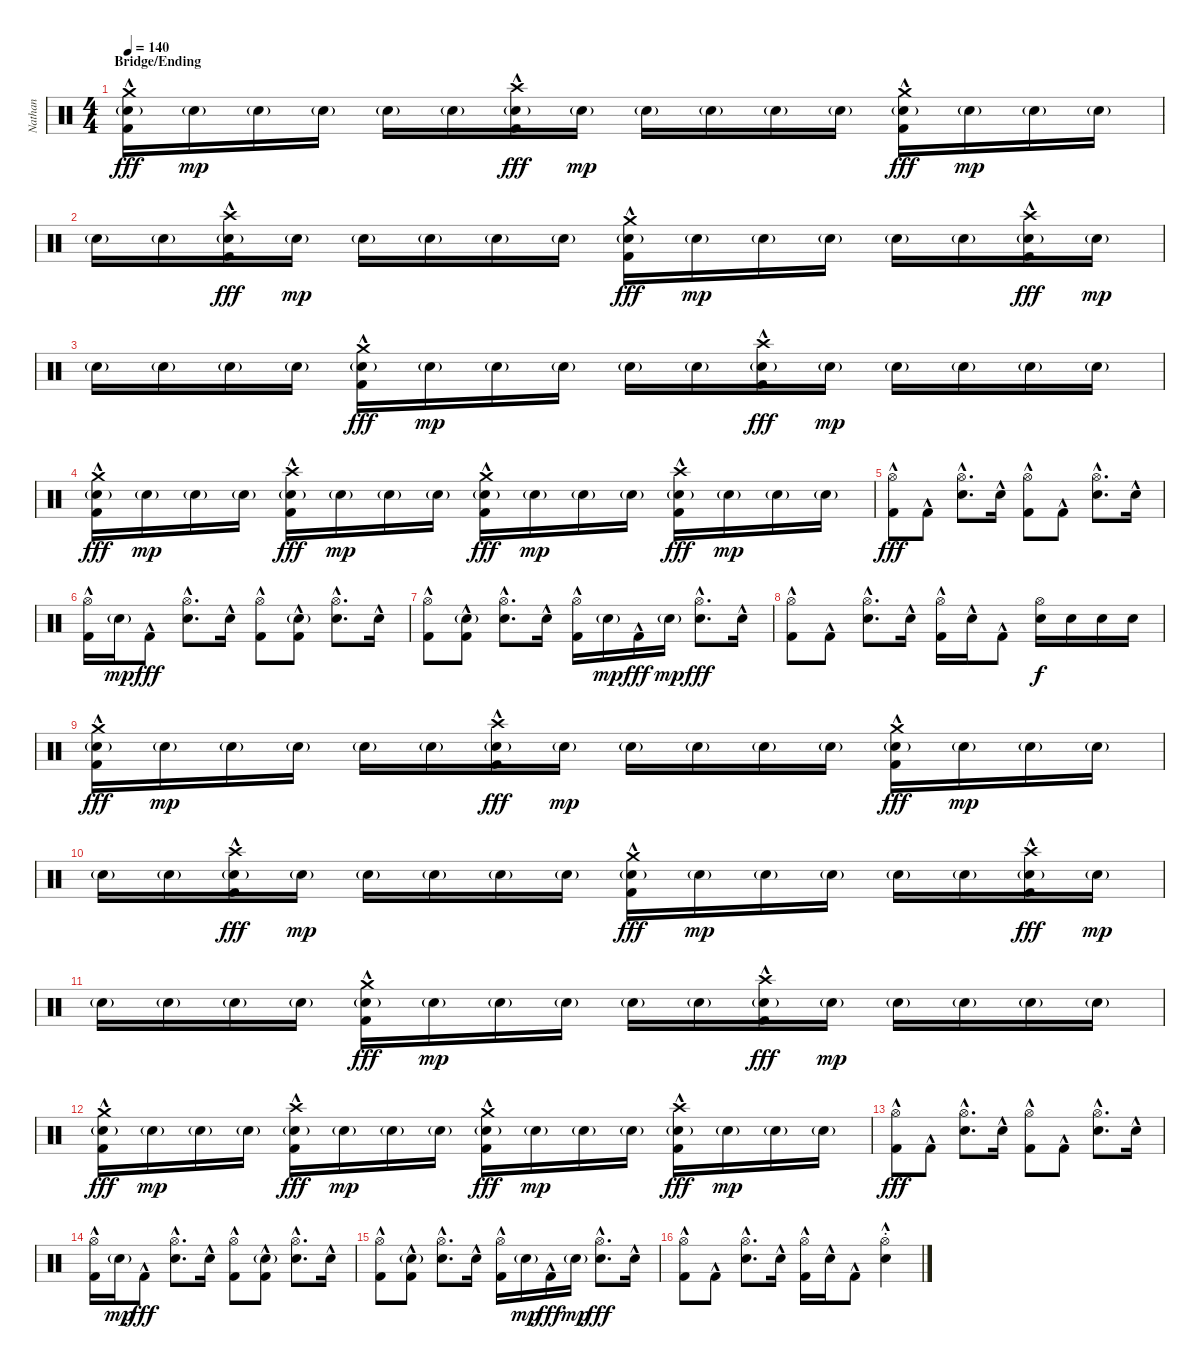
\track ("Nathan" "Nathan") {instrument percussion}
\staff {score}
\articulation defaults
\ts (4 4)
\section ("" "Bridge/Ending")
\tempo 140
\clef neutral
\ks c
("Crash medium (hit)" "Snare (hit) 2"{g} "Kick (hit) 2"{hac}).16{dy fff} "Snare (hit) 2"{g}.16{dy mp} "Snare (hit) 2"{g}.16 "Snare (hit) 2"{g}.16 "Snare (hit) 2"{g}.16 "Snare (hit) 2"{g}.16 ("Crash high (hit)" "Snare (hit) 2"{g} "Kick (hit) 2"{hac}).16{dy fff} "Snare (hit) 2"{g}.16{dy mp} "Snare (hit) 2"{g}.16 "Snare (hit) 2"{g}.16 "Snare (hit) 2"{g}.16 "Snare (hit) 2"{g}.16 ("Crash medium (hit)" "Snare (hit) 2"{g} "Kick (hit) 2"{hac}).16{dy fff} "Snare (hit) 2"{g}.16{dy mp} "Snare (hit) 2"{g}.16 "Snare (hit) 2"{g}.16 |
"Snare (hit) 2"{g}.16 "Snare (hit) 2"{g}.16 ("Crash high (hit)" "Snare (hit) 2"{g} "Kick (hit) 2"{hac}).16{dy fff} "Snare (hit) 2"{g}.16{dy mp} "Snare (hit) 2"{g}.16 "Snare (hit) 2"{g}.16 "Snare (hit) 2"{g}.16 "Snare (hit) 2"{g}.16 ("Crash medium (hit)" "Snare (hit) 2"{g} "Kick (hit) 2"{hac}).16{dy fff} "Snare (hit) 2"{g}.16{dy mp} "Snare (hit) 2"{g}.16 "Snare (hit) 2"{g}.16 "Snare (hit) 2"{g}.16 "Snare (hit) 2"{g}.16 ("Crash high (hit)" "Snare (hit) 2"{g} "Kick (hit) 2"{hac}).16{dy fff} "Snare (hit) 2"{g}.16{dy mp} |
"Snare (hit) 2"{g}.16 "Snare (hit) 2"{g}.16 "Snare (hit) 2"{g}.16 "Snare (hit) 2"{g}.16 ("Crash medium (hit)" "Snare (hit) 2"{g} "Kick (hit) 2"{hac}).16{dy fff} "Snare (hit) 2"{g}.16{dy mp} "Snare (hit) 2"{g}.16 "Snare (hit) 2"{g}.16 "Snare (hit) 2"{g}.16 "Snare (hit) 2"{g}.16 ("Crash high (hit)" "Snare (hit) 2"{g} "Kick (hit) 2"{hac}).16{dy fff} "Snare (hit) 2"{g}.16{dy mp} "Snare (hit) 2"{g}.16 "Snare (hit) 2"{g}.16 "Snare (hit) 2"{g}.16 "Snare (hit) 2"{g}.16 |
("Crash medium (hit)" "Snare (hit) 2"{g} "Kick (hit) 2"{hac}).16{dy fff} "Snare (hit) 2"{g}.16{dy mp} "Snare (hit) 2"{g}.16 "Snare (hit) 2"{g}.16 ("Crash high (hit)" "Snare (hit) 2"{g} "Kick (hit) 2"{hac}).16{dy fff} "Snare (hit) 2"{g}.16{dy mp} "Snare (hit) 2"{g}.16 "Snare (hit) 2"{g}.16 ("Crash medium (hit)" "Snare (hit) 2"{g} "Kick (hit) 2"{hac}).16{dy fff} "Snare (hit) 2"{g}.16{dy mp} "Snare (hit) 2"{g}.16 "Snare (hit) 2"{g}.16 ("Crash high (hit)" "Snare (hit) 2"{g} "Kick (hit) 2"{hac}).16{dy fff} "Snare (hit) 2"{g}.16{dy mp} "Snare (hit) 2"{g}.16 "Snare (hit) 2"{g}.16 |
("Hi-Hat (open)" "Kick (hit) 2"{hac}).8{dy fff} "Kick (hit) 2"{hac}.8 ("Hi-Hat (open)" "Snare (hit) 2"{hac}).8{d} "Snare (hit) 2"{hac}.16 ("Hi-Hat (open)" "Kick (hit) 2"{hac}).8 "Kick (hit) 2"{hac}.8 ("Hi-Hat (open)" "Snare (hit) 2"{hac}).8{d} "Snare (hit) 2"{hac}.16 |
("Hi-Hat (open)" "Kick (hit) 2"{hac}).16 "Snare (hit) 2"{g}.16{dy mp} "Kick (hit) 2"{hac}.8{dy fff} ("Hi-Hat (open)" "Snare (hit) 2"{hac}).8{d} "Snare (hit) 2"{hac}.16 ("Hi-Hat (open)" "Kick (hit) 2"{hac}).8 ("Snare (hit) 2"{g} "Kick (hit) 2"{hac}).8 ("Hi-Hat (open)" "Snare (hit) 2"{hac}).8{d} "Snare (hit) 2"{hac}.16 |
("Hi-Hat (open)" "Kick (hit) 2"{hac}).8 ("Snare (hit) 2"{g} "Kick (hit) 2"{hac}).8 ("Hi-Hat (open)" "Snare (hit) 2"{hac}).8{d} "Snare (hit) 2"{hac}.16 ("Hi-Hat (open)" "Kick (hit) 2"{hac}).16 "Snare (hit) 2"{g}.16{dy mp} "Kick (hit) 2"{hac}.16{dy fff} "Snare (hit) 2"{g}.16{dy mp} ("Hi-Hat (open)" "Snare (hit) 2"{hac}).8{d dy fff} "Snare (hit) 2"{hac}.16 |
("Hi-Hat (open)" "Kick (hit) 2"{hac}).8 "Kick (hit) 2"{hac}.8 ("Hi-Hat (open)" "Snare (hit) 2"{hac}).8{d} "Snare (hit) 2"{hac}.16 ("Hi-Hat (open)" "Kick (hit) 2"{hac}).16 "Snare (hit) 2"{hac}.16 "Kick (hit) 2"{hac}.8 ("Hi-Hat (open)" "Snare (hit) 2").16{dy f} "Snare (hit) 2".16 "Snare (hit) 2".16 "Snare (hit) 2".16 |
("Crash medium (hit)" "Snare (hit) 2"{g} "Kick (hit) 2"{hac}).16{dy fff} "Snare (hit) 2"{g}.16{dy mp} "Snare (hit) 2"{g}.16 "Snare (hit) 2"{g}.16 "Snare (hit) 2"{g}.16 "Snare (hit) 2"{g}.16 ("Crash high (hit)" "Snare (hit) 2"{g} "Kick (hit) 2"{hac}).16{dy fff} "Snare (hit) 2"{g}.16{dy mp} "Snare (hit) 2"{g}.16 "Snare (hit) 2"{g}.16 "Snare (hit) 2"{g}.16 "Snare (hit) 2"{g}.16 ("Crash medium (hit)" "Snare (hit) 2"{g} "Kick (hit) 2"{hac}).16{dy fff} "Snare (hit) 2"{g}.16{dy mp} "Snare (hit) 2"{g}.16 "Snare (hit) 2"{g}.16 |
"Snare (hit) 2"{g}.16 "Snare (hit) 2"{g}.16 ("Crash high (hit)" "Snare (hit) 2"{g} "Kick (hit) 2"{hac}).16{dy fff} "Snare (hit) 2"{g}.16{dy mp} "Snare (hit) 2"{g}.16 "Snare (hit) 2"{g}.16 "Snare (hit) 2"{g}.16 "Snare (hit) 2"{g}.16 ("Crash medium (hit)" "Snare (hit) 2"{g} "Kick (hit) 2"{hac}).16{dy fff} "Snare (hit) 2"{g}.16{dy mp} "Snare (hit) 2"{g}.16 "Snare (hit) 2"{g}.16 "Snare (hit) 2"{g}.16 "Snare (hit) 2"{g}.16 ("Crash high (hit)" "Snare (hit) 2"{g} "Kick (hit) 2"{hac}).16{dy fff} "Snare (hit) 2"{g}.16{dy mp} |
"Snare (hit) 2"{g}.16 "Snare (hit) 2"{g}.16 "Snare (hit) 2"{g}.16 "Snare (hit) 2"{g}.16 ("Crash medium (hit)" "Snare (hit) 2"{g} "Kick (hit) 2"{hac}).16{dy fff} "Snare (hit) 2"{g}.16{dy mp} "Snare (hit) 2"{g}.16 "Snare (hit) 2"{g}.16 "Snare (hit) 2"{g}.16 "Snare (hit) 2"{g}.16 ("Crash high (hit)" "Snare (hit) 2"{g} "Kick (hit) 2"{hac}).16{dy fff} "Snare (hit) 2"{g}.16{dy mp} "Snare (hit) 2"{g}.16 "Snare (hit) 2"{g}.16 "Snare (hit) 2"{g}.16 "Snare (hit) 2"{g}.16 |
("Crash medium (hit)" "Snare (hit) 2"{g} "Kick (hit) 2"{hac}).16{dy fff} "Snare (hit) 2"{g}.16{dy mp} "Snare (hit) 2"{g}.16 "Snare (hit) 2"{g}.16 ("Crash high (hit)" "Snare (hit) 2"{g} "Kick (hit) 2"{hac}).16{dy fff} "Snare (hit) 2"{g}.16{dy mp} "Snare (hit) 2"{g}.16 "Snare (hit) 2"{g}.16 ("Crash medium (hit)" "Snare (hit) 2"{g} "Kick (hit) 2"{hac}).16{dy fff} "Snare (hit) 2"{g}.16{dy mp} "Snare (hit) 2"{g}.16 "Snare (hit) 2"{g}.16 ("Crash high (hit)" "Snare (hit) 2"{g} "Kick (hit) 2"{hac}).16{dy fff} "Snare (hit) 2"{g}.16{dy mp} "Snare (hit) 2"{g}.16 "Snare (hit) 2"{g}.16 |
("Hi-Hat (open)" "Kick (hit) 2"{hac}).8{dy fff} "Kick (hit) 2"{hac}.8 ("Hi-Hat (open)" "Snare (hit) 2"{hac}).8{d} "Snare (hit) 2"{hac}.16 ("Hi-Hat (open)" "Kick (hit) 2"{hac}).8 "Kick (hit) 2"{hac}.8 ("Hi-Hat (open)" "Snare (hit) 2"{hac}).8{d} "Snare (hit) 2"{hac}.16 |
("Hi-Hat (open)" "Kick (hit) 2"{hac}).16 "Snare (hit) 2"{g}.16{dy mp} "Kick (hit) 2"{hac}.8{dy fff} ("Hi-Hat (open)" "Snare (hit) 2"{hac}).8{d} "Snare (hit) 2"{hac}.16 ("Hi-Hat (open)" "Kick (hit) 2"{hac}).8 ("Snare (hit) 2"{g} "Kick (hit) 2"{hac}).8 ("Hi-Hat (open)" "Snare (hit) 2"{hac}).8{d} "Snare (hit) 2"{hac}.16 |
("Hi-Hat (open)" "Kick (hit) 2"{hac}).8 ("Snare (hit) 2"{g} "Kick (hit) 2"{hac}).8 ("Hi-Hat (open)" "Snare (hit) 2"{hac}).8{d} "Snare (hit) 2"{hac}.16 ("Hi-Hat (open)" "Kick (hit) 2"{hac}).16 "Snare (hit) 2"{g}.16{dy mp} "Kick (hit) 2"{hac}.16{dy fff} "Snare (hit) 2"{g}.16{dy mp} ("Hi-Hat (open)" "Snare (hit) 2"{hac}).8{d dy fff} "Snare (hit) 2"{hac}.16 |
("Hi-Hat (open)" "Kick (hit) 2"{hac}).8 "Kick (hit) 2"{hac}.8 ("Hi-Hat (open)" "Snare (hit) 2"{hac}).8{d} "Snare (hit) 2"{hac}.16 ("Hi-Hat (open)" "Kick (hit) 2"{hac}).16 "Snare (hit) 2"{hac}.16 "Kick (hit) 2"{hac}.8 ("Hi-Hat (open)"{st} "Snare (hit) 2"{hac st}).4
